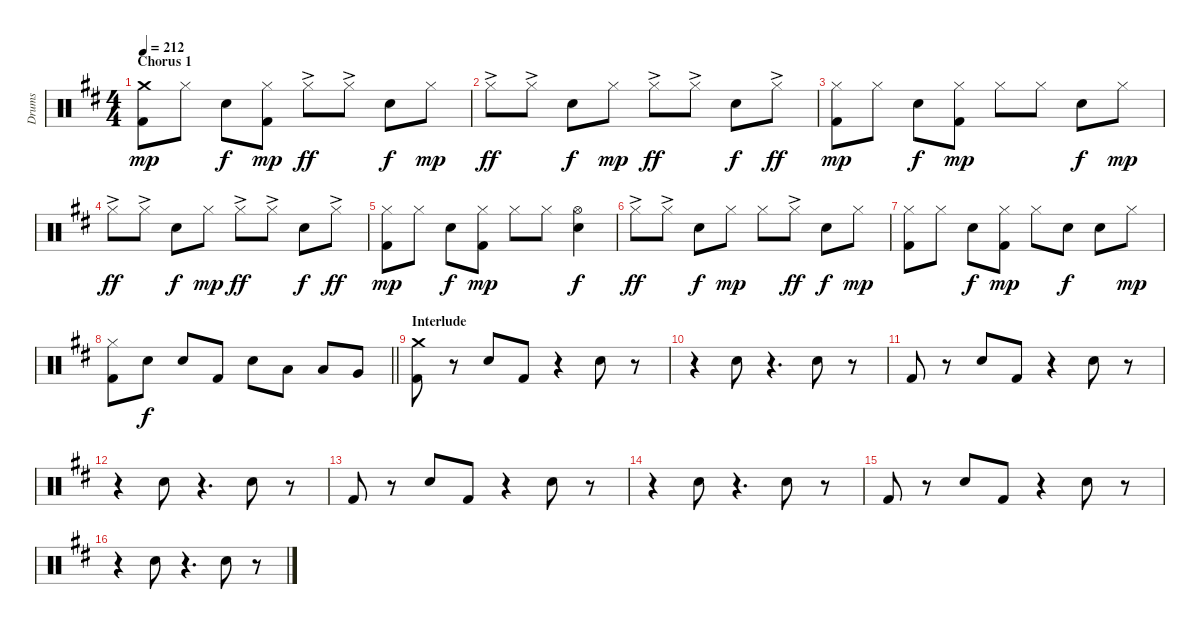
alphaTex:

\track ("Drums" "Drums") {instrument percussion}
\staff {score}
\articulation defaults
\ts (4 4)
\section ("" "Chorus 1")
\tempo 212
\clef neutral
\ks d
("Crash medium (hit)" "Kick (hit) 2").8{dy mp} "Hi-Hat (closed)".8 "Electric Snare (hit)".8{dy f} ("Hi-Hat (closed)" "Kick (hit) 2").8{dy mp} "Hi-Hat (closed)"{ac}.8{dy ff} "Hi-Hat (closed)"{ac}.8 "Electric Snare (hit)".8{dy f} "Hi-Hat (closed)".8{dy mp} |
"Hi-Hat (closed)"{ac}.8{dy ff} "Hi-Hat (closed)"{ac}.8 "Electric Snare (hit)".8{dy f} "Hi-Hat (closed)".8{dy mp} "Hi-Hat (closed)"{ac}.8{dy ff} "Hi-Hat (closed)"{ac}.8 "Electric Snare (hit)".8{dy f} "Hi-Hat (closed)"{ac}.8{dy ff} |
("Hi-Hat (closed)" "Kick (hit) 2").8{dy mp} "Hi-Hat (closed)".8 "Electric Snare (hit)".8{dy f} ("Hi-Hat (closed)" "Kick (hit) 2").8{dy mp} "Hi-Hat (closed)".8 "Hi-Hat (closed)".8 "Electric Snare (hit)".8{dy f} "Hi-Hat (closed)".8{dy mp} |
"Hi-Hat (closed)"{ac}.8{dy ff} "Hi-Hat (closed)"{ac}.8 "Electric Snare (hit)".8{dy f} "Hi-Hat (closed)".8{dy mp} "Hi-Hat (closed)"{ac}.8{dy ff} "Hi-Hat (closed)"{ac}.8 "Electric Snare (hit)".8{dy f} "Hi-Hat (closed)"{ac}.8{dy ff} |
("Hi-Hat (closed)" "Kick (hit) 2").8{dy mp} "Hi-Hat (closed)".8 "Electric Snare (hit)".8{dy f} ("Hi-Hat (closed)" "Kick (hit) 2").8{dy mp} "Hi-Hat (closed)".8 "Hi-Hat (closed)".8 ("Hi-Hat (open)" "Electric Snare (hit)").4{dy f} |
"Hi-Hat (closed)"{ac}.8{dy ff} "Hi-Hat (closed)"{ac}.8 "Electric Snare (hit)".8{dy f} "Hi-Hat (closed)".8{dy mp} "Hi-Hat (closed)".8 "Hi-Hat (closed)"{ac}.8{dy ff} "Electric Snare (hit)".8{dy f} "Hi-Hat (closed)".8{dy mp} |
("Hi-Hat (closed)" "Kick (hit) 2").8 "Hi-Hat (closed)".8 "Electric Snare (hit)".8{dy f} ("Hi-Hat (closed)" "Kick (hit) 2").8{dy mp} "Hi-Hat (closed)".8 "Electric Snare (hit)".8{dy f} "Electric Snare (hit)".8 "Hi-Hat (closed)".8{dy mp} |
\barLineRight lightlight
("Hi-Hat (closed)" "Kick (hit) 2").8 "Electric Snare (hit)".8{dy f} "Electric Snare (hit)".8 "Kick (hit) 2".8 "Electric Snare (hit)".8 "Low Tom (hit)".8 "Low Tom (hit)".8 "Very Low Tom (hit)".8 |
\section ("" "Interlude")
("Crash medium (hit)" "Kick (hit) 2").8 r.8 "Electric Snare (hit)".8 "Kick (hit) 2".8 r.4 "Electric Snare (hit)".8 r.8 |
r.4 "Electric Snare (hit)".8 r.4{d} "Electric Snare (hit)".8 r.8 |
"Kick (hit) 2".8 r.8 "Electric Snare (hit)".8 "Kick (hit) 2".8 r.4 "Electric Snare (hit)".8 r.8 |
r.4 "Electric Snare (hit)".8 r.4{d} "Electric Snare (hit)".8 r.8 |
"Kick (hit) 2".8 r.8 "Electric Snare (hit)".8 "Kick (hit) 2".8 r.4 "Electric Snare (hit)".8 r.8 |
r.4 "Electric Snare (hit)".8 r.4{d} "Electric Snare (hit)".8 r.8 |
"Kick (hit) 2".8 r.8 "Electric Snare (hit)".8 "Kick (hit) 2".8 r.4 "Electric Snare (hit)".8 r.8 |
r.4 "Electric Snare (hit)".8 r.4{d} "Electric Snare (hit)".8 r.8
